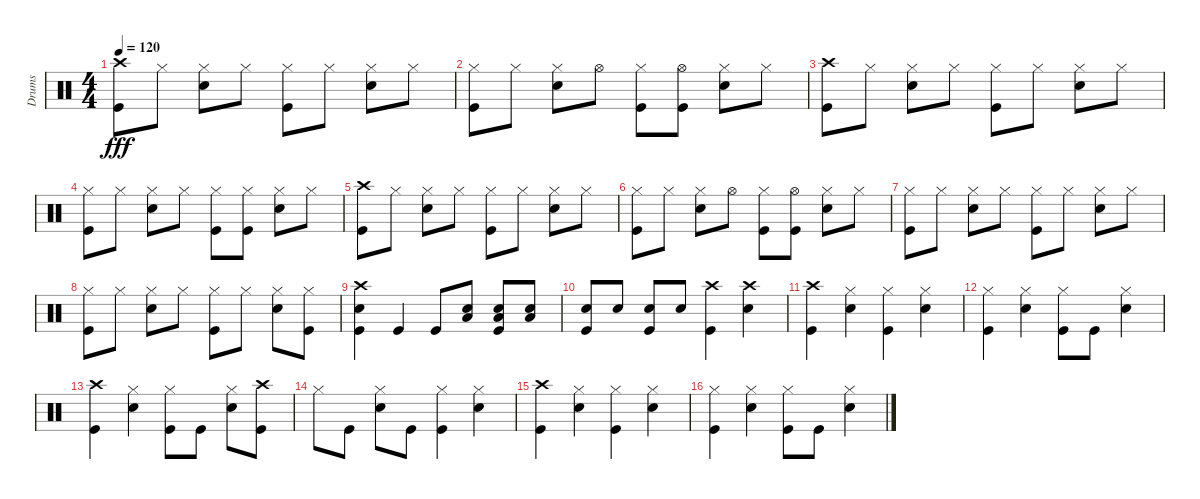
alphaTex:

\track ("Drums" "Drums") {instrument percussion}
\staff {score}
\articulation defaults
\ts (4 4)
\tempo 120
\clef neutral
\ks c
("Crash high (hit)" "Kick (hit)").8{dy fff} "Hi-Hat (closed)".8 ("Hi-Hat (closed)" "Snare (hit) 2").8 "Hi-Hat (closed)".8 ("Hi-Hat (closed)" "Kick (hit)").8 "Hi-Hat (closed)".8 ("Hi-Hat (closed)" "Snare (hit) 2").8 "Hi-Hat (closed)".8 |
("Hi-Hat (closed)" "Kick (hit)").8 "Hi-Hat (closed)".8 ("Hi-Hat (closed)" "Snare (hit) 2").8 "Hi-Hat (open)".8 ("Hi-Hat (closed)" "Kick (hit)").8 ("Kick (hit)" "Hi-Hat (open)").8 ("Hi-Hat (closed)" "Snare (hit) 2").8 "Hi-Hat (closed)".8 |
("Crash high (hit)" "Kick (hit)").8 "Hi-Hat (closed)".8 ("Hi-Hat (closed)" "Snare (hit) 2").8 "Hi-Hat (closed)".8 ("Hi-Hat (closed)" "Kick (hit)").8 "Hi-Hat (closed)".8 ("Hi-Hat (closed)" "Snare (hit) 2").8 "Hi-Hat (closed)".8 |
("Hi-Hat (closed)" "Kick (hit)").8 "Hi-Hat (closed)".8 ("Hi-Hat (closed)" "Snare (hit) 2").8 "Hi-Hat (closed)".8 ("Hi-Hat (closed)" "Kick (hit)").8 ("Hi-Hat (closed)" "Kick (hit)").8 ("Hi-Hat (closed)" "Snare (hit) 2").8 "Hi-Hat (closed)".8 |
("Crash high (hit)" "Kick (hit)").8 "Hi-Hat (closed)".8 ("Hi-Hat (closed)" "Snare (hit) 2").8 "Hi-Hat (closed)".8 ("Hi-Hat (closed)" "Kick (hit)").8 "Hi-Hat (closed)".8 ("Hi-Hat (closed)" "Snare (hit) 2").8 "Hi-Hat (closed)".8 |
("Hi-Hat (closed)" "Kick (hit)").8 "Hi-Hat (closed)".8 ("Hi-Hat (closed)" "Snare (hit) 2").8 "Hi-Hat (open)".8 ("Hi-Hat (closed)" "Kick (hit)").8 ("Kick (hit)" "Hi-Hat (open)").8 ("Hi-Hat (closed)" "Snare (hit) 2").8 "Hi-Hat (closed)".8 |
("Hi-Hat (closed)" "Kick (hit)").8 "Hi-Hat (closed)".8 ("Hi-Hat (closed)" "Snare (hit) 2").8 "Hi-Hat (closed)".8 ("Hi-Hat (closed)" "Kick (hit)").8 "Hi-Hat (closed)".8 ("Hi-Hat (closed)" "Snare (hit) 2").8 "Hi-Hat (closed)".8 |
("Kick (hit)" "Hi-Hat (closed)").8 "Hi-Hat (closed)".8 ("Snare (hit) 2" "Hi-Hat (closed)").8 "Hi-Hat (closed)".8 ("Kick (hit)" "Hi-Hat (closed)").8 "Hi-Hat (closed)".8 ("Snare (hit) 2" "Hi-Hat (closed)").8 ("Kick (hit)" "Hi-Hat (closed)").8 |
("Crash high (hit)" "Snare (hit) 2" "Kick (hit)").4 "Kick (hit)".4 "Kick (hit)".8 ("Snare (hit) 2" "Low Floor Tom (hit)").8 ("Kick (hit)" "Snare (hit) 2" "Low Floor Tom (hit)").8 ("Snare (hit) 2" "Low Floor Tom (hit)").8 |
("Kick (hit)" "Snare (hit) 2").8 "Snare (hit) 2".8 ("Kick (hit)" "Snare (hit) 2").8 "Snare (hit) 2".8 ("Kick (hit)" "Crash high (hit)").4 ("Crash high (hit)" "Snare (hit) 2").4 |
("Kick (hit)" "Crash high (hit)").4 ("Snare (hit) 2" "Hi-Hat (closed)").4 ("Kick (hit)" "Hi-Hat (closed)").4 ("Snare (hit) 2" "Hi-Hat (closed)").4 |
("Kick (hit)" "Hi-Hat (closed)").4 ("Snare (hit) 2" "Hi-Hat (closed)").4 ("Kick (hit)" "Hi-Hat (closed)").8 "Kick (hit)".8 ("Hi-Hat (closed)" "Snare (hit) 2").4 |
("Kick (hit)" "Crash high (hit)").4 ("Snare (hit) 2" "Hi-Hat (closed)").4 ("Kick (hit)" "Hi-Hat (closed)").8 "Kick (hit)".8 ("Snare (hit) 2" "Hi-Hat (closed)").8 ("Kick (hit)" "Crash high (hit)").8 |
"Hi-Hat (closed)".8 "Kick (hit)".8 ("Hi-Hat (closed)" "Snare (hit) 2").8 "Kick (hit)".8 ("Hi-Hat (closed)" "Kick (hit)").4 ("Hi-Hat (closed)" "Snare (hit) 2").4 |
("Crash high (hit)" "Kick (hit)").4 ("Hi-Hat (closed)" "Snare (hit) 2").4 ("Hi-Hat (closed)" "Kick (hit)").4 ("Hi-Hat (closed)" "Snare (hit) 2").4 |
("Hi-Hat (closed)" "Kick (hit)").4 ("Hi-Hat (closed)" "Snare (hit) 2").4 ("Hi-Hat (closed)" "Kick (hit)").8 "Kick (hit)".8 ("Hi-Hat (closed)" "Snare (hit) 2").4
